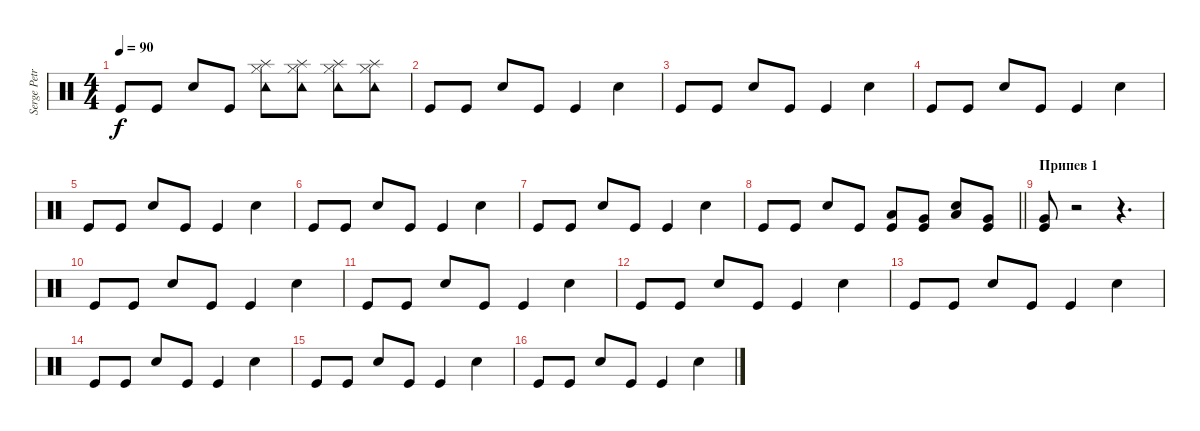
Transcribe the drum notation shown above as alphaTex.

\track ("Serge Petrone" "Serge Petr") {instrument percussion}
\staff {score}
\articulation defaults
\ts (4 4)
\tempo 90
\clef neutral
\ks c "Kick (hit)".8{dy f} "Kick (hit)".8 "Snare (hit) 2".8 "Kick (hit)".8
("Splash (hit)" "Tambourine (hit)" "Hi-Hat (closed)").8 ("Splash (hit)" "Hi-Hat (closed)" "Tambourine (hit)").8 ("Splash (hit)" "Hi-Hat (closed)" "Tambourine (hit)").8 ("Splash (hit)" "Hi-Hat (closed)" "Tambourine (hit)").8 |
"Kick (hit)".8 "Kick (hit)".8 "Snare (hit) 2".8 "Kick (hit)".8 "Kick (hit)".4 "Snare (hit) 2".4 |
"Kick (hit)".8 "Kick (hit)".8 "Snare (hit) 2".8 "Kick (hit)".8 "Kick (hit)".4 "Snare (hit) 2".4 |
"Kick (hit)".8 "Kick (hit)".8 "Snare (hit) 2".8 "Kick (hit)".8 "Kick (hit)".4 "Snare (hit) 2".4 |
"Kick (hit)".8 "Kick (hit)".8 "Snare (hit) 2".8 "Kick (hit)".8 "Kick (hit)".4 "Snare (hit) 2".4 |
"Kick (hit)".8 "Kick (hit)".8 "Snare (hit) 2".8 "Kick (hit)".8 "Kick (hit)".4 "Snare (hit) 2".4 |
"Kick (hit)".8 "Kick (hit)".8 "Snare (hit) 2".8 "Kick (hit)".8 "Kick (hit)".4 "Snare (hit) 2".4 |
\barLineRight lightlight "Kick (hit)".8 "Kick (hit)".8 "Snare (hit) 2".8 "Kick (hit)".8
("Kick (hit)" "Low Floor Tom (hit)").8 ("Kick (hit)" "Very Low Tom (hit)").8 ("Snare (hit) 2" "Low Tom (hit)").8 ("Kick (hit)" "Very Low Tom (hit)").8 |
\section ("" "Припев 1")
("Kick (hit)" "Very Low Tom (hit)").8 r.2 r.4{d} |
"Kick (hit)".8 "Kick (hit)".8 "Snare (hit) 2".8 "Kick (hit)".8 "Kick (hit)".4 "Snare (hit) 2".4 |
"Kick (hit)".8 "Kick (hit)".8 "Snare (hit) 2".8 "Kick (hit)".8 "Kick (hit)".4 "Snare (hit) 2".4 |
"Kick (hit)".8 "Kick (hit)".8 "Snare (hit) 2".8 "Kick (hit)".8 "Kick (hit)".4 "Snare (hit) 2".4 |
"Kick (hit)".8 "Kick (hit)".8 "Snare (hit) 2".8 "Kick (hit)".8 "Kick (hit)".4 "Snare (hit) 2".4 |
"Kick (hit)".8 "Kick (hit)".8 "Snare (hit) 2".8 "Kick (hit)".8 "Kick (hit)".4 "Snare (hit) 2".4 |
"Kick (hit)".8 "Kick (hit)".8 "Snare (hit) 2".8 "Kick (hit)".8 "Kick (hit)".4 "Snare (hit) 2".4 |
"Kick (hit)".8 "Kick (hit)".8 "Snare (hit) 2".8 "Kick (hit)".8 "Kick (hit)".4 "Snare (hit) 2".4
